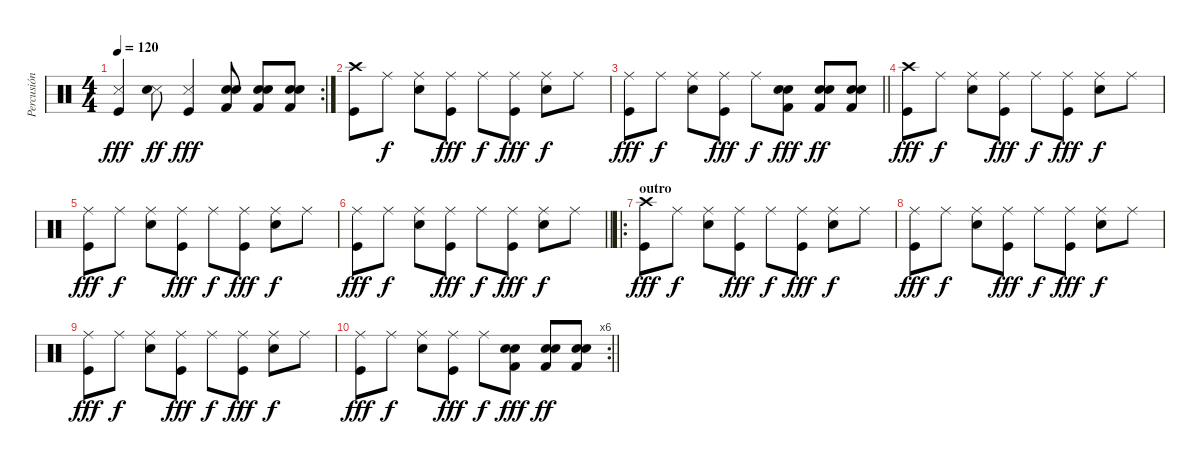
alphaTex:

\track ("Percusión" "Percusión") {instrument percussion}
\staff {score}
\articulation defaults
\rc 2
\ts (4 4)
\tempo 120
\clef neutral
\ks c
("Snare (side stick) 3" "Kick (hit)").4{dy fff} ("Snare (side stick) 3" "Electric Snare (hit)").8{dy ff} ("Snare (side stick) 3" "Kick (hit)").4{dy fff} ("Electric Snare (hit)" "Electric Snare (hit)" "Kick (hit) 2").8 ("Electric Snare (hit)" "Electric Snare (hit)" "Kick (hit) 2").8 ("Electric Snare (hit)" "Electric Snare (hit)" "Kick (hit) 2").8 |
("Crash high (hit)" "Kick (hit)").8 "Ride (middle)".8{dy f} ("Ride (middle)" "Electric Snare (hit)").8 ("Ride (middle)" "Kick (hit)").8{dy fff} "Ride (middle)".8{dy f} ("Ride (middle)" "Kick (hit)").8{dy fff} ("Ride (middle)" "Electric Snare (hit)").8{dy f} "Ride (middle)".8 |
\barLineRight lightlight
("Ride (middle)" "Kick (hit)").8{dy fff} "Ride (middle)".8{dy f} ("Ride (middle)" "Electric Snare (hit)").8 ("Ride (middle)" "Kick (hit)").8{dy fff} "Ride (middle)".8{dy f} ("Electric Snare (hit)" "Electric Snare (hit)" "Kick (hit) 2").8{dy fff} ("Electric Snare (hit)" "Electric Snare (hit)" "Kick (hit) 2").8{dy ff} ("Electric Snare (hit)" "Electric Snare (hit)" "Kick (hit) 2").8 |
("Crash high (hit)" "Kick (hit)").8{dy fff} "Ride (middle)".8{dy f} ("Ride (middle)" "Electric Snare (hit)").8 ("Ride (middle)" "Kick (hit)").8{dy fff} "Ride (middle)".8{dy f} ("Ride (middle)" "Kick (hit)").8{dy fff} ("Ride (middle)" "Electric Snare (hit)").8{dy f} "Ride (middle)".8 |
("Ride (middle)" "Kick (hit)").8{dy fff} "Ride (middle)".8{dy f} ("Ride (middle)" "Electric Snare (hit)").8 ("Ride (middle)" "Kick (hit)").8{dy fff} "Ride (middle)".8{dy f} ("Ride (middle)" "Kick (hit)").8{dy fff} ("Ride (middle)" "Electric Snare (hit)").8{dy f} "Ride (middle)".8 |
\barLineRight lightlight
("Ride (middle)" "Kick (hit)").8{dy fff} "Ride (middle)".8{dy f} ("Ride (middle)" "Electric Snare (hit)").8 ("Ride (middle)" "Kick (hit)").8{dy fff} "Ride (middle)".8{dy f} ("Ride (middle)" "Kick (hit)").8{dy fff} ("Ride (middle)" "Electric Snare (hit)").8{dy f} "Ride (middle)".8 |
\ro
\section ("" "outro")
("Crash high (hit)" "Kick (hit)").8{dy fff} "Ride (middle)".8{dy f} ("Ride (middle)" "Electric Snare (hit)").8 ("Ride (middle)" "Kick (hit)").8{dy fff} "Ride (middle)".8{dy f} ("Ride (middle)" "Kick (hit)").8{dy fff} ("Ride (middle)" "Electric Snare (hit)").8{dy f} "Ride (middle)".8 |
("Ride (middle)" "Kick (hit)").8{dy fff} "Ride (middle)".8{dy f} ("Ride (middle)" "Electric Snare (hit)").8 ("Ride (middle)" "Kick (hit)").8{dy fff} "Ride (middle)".8{dy f} ("Ride (middle)" "Kick (hit)").8{dy fff} ("Ride (middle)" "Electric Snare (hit)").8{dy f} "Ride (middle)".8 |
("Ride (middle)" "Kick (hit)").8{dy fff} "Ride (middle)".8{dy f} ("Ride (middle)" "Electric Snare (hit)").8 ("Ride (middle)" "Kick (hit)").8{dy fff} "Ride (middle)".8{dy f} ("Ride (middle)" "Kick (hit)").8{dy fff} ("Ride (middle)" "Electric Snare (hit)").8{dy f} "Ride (middle)".8 |
\rc 6
\barLineRight lightlight
("Ride (middle)" "Kick (hit)").8{dy fff} "Ride (middle)".8{dy f} ("Ride (middle)" "Electric Snare (hit)").8 ("Ride (middle)" "Kick (hit)").8{dy fff} "Ride (middle)".8{dy f} ("Electric Snare (hit)" "Electric Snare (hit)" "Kick (hit) 2").8{dy fff} ("Electric Snare (hit)" "Electric Snare (hit)" "Kick (hit) 2").8{dy ff} ("Electric Snare (hit)" "Electric Snare (hit)" "Kick (hit) 2").8
